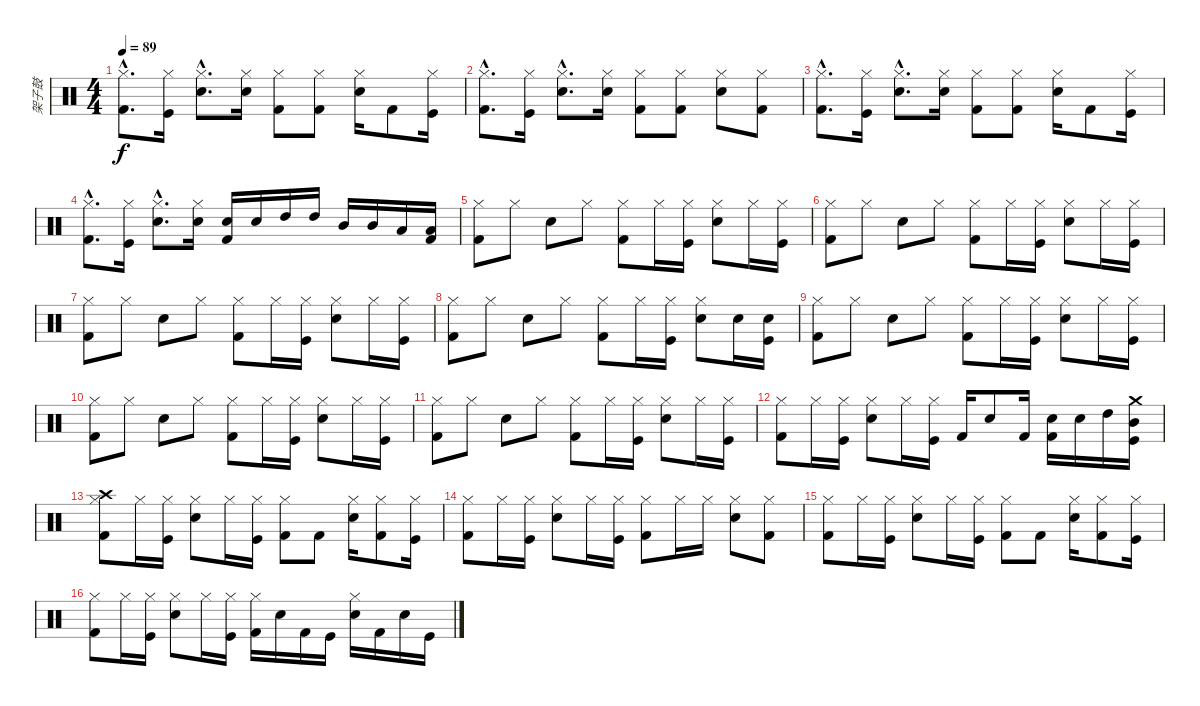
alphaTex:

\track ("架子鼓" "架子鼓") {instrument percussion}
\staff {score}
\articulation defaults
\ts (4 4)
\tempo 89
\clef neutral
\ks c
("Kick (hit) 2"{hac} "Hi-Hat (closed)"{hac}).8{d dy f} ("Kick (hit)" "Hi-Hat (closed)").16 ("Snare (hit) 2"{hac} "Hi-Hat (closed)"{hac}).8{d} ("Snare (hit) 2" "Hi-Hat (closed)").16 ("Kick (hit) 2" "Hi-Hat (closed)").8 ("Kick (hit) 2" "Hi-Hat (closed)").8 ("Snare (hit) 2" "Hi-Hat (closed)").16 "Kick (hit) 2".8 ("Kick (hit)" "Hi-Hat (closed)").16 |
("Kick (hit) 2"{hac} "Hi-Hat (closed)"{hac}).8{d} ("Kick (hit)" "Hi-Hat (closed)").16 ("Snare (hit) 2"{hac} "Hi-Hat (closed)"{hac}).8{d} ("Snare (hit) 2" "Hi-Hat (closed)").16 ("Kick (hit) 2" "Hi-Hat (closed)").8 ("Kick (hit) 2" "Hi-Hat (closed)").8 ("Snare (hit) 2" "Hi-Hat (closed)").8 ("Kick (hit) 2" "Hi-Hat (closed)").8 |
("Kick (hit) 2"{hac} "Hi-Hat (closed)"{hac}).8{d} ("Kick (hit)" "Hi-Hat (closed)").16 ("Snare (hit) 2"{hac} "Hi-Hat (closed)"{hac}).8{d} ("Snare (hit) 2" "Hi-Hat (closed)").16 ("Kick (hit) 2" "Hi-Hat (closed)").8 ("Kick (hit) 2" "Hi-Hat (closed)").8 ("Snare (hit) 2" "Hi-Hat (closed)").16 "Kick (hit) 2".8 ("Kick (hit)" "Hi-Hat (closed)").16 |
("Kick (hit) 2"{hac} "Hi-Hat (closed)"{hac}).8{d} ("Kick (hit)" "Hi-Hat (closed)").16 ("Snare (hit) 2"{hac} "Hi-Hat (closed)"{hac}).8{d} ("Snare (hit) 2" "Hi-Hat (closed)").16 ("Snare (hit) 2" "Kick (hit) 2").16 "Snare (hit) 2".16 "High Tom (hit)".16 "High Tom (hit)".16 "Mid Tom (hit)".16 "Mid Tom (hit)".16 "Low Tom (hit)".16 ("Low Tom (hit)" "Kick (hit) 2").16 |
("Hi-Hat (closed)" "Kick (hit) 2").8 "Hi-Hat (closed)".8 "Snare (hit) 2".8 "Hi-Hat (closed)".8 ("Hi-Hat (closed)" "Kick (hit) 2").8 "Hi-Hat (closed)".16 ("Hi-Hat (closed)" "Kick (hit)").16 ("Snare (hit) 2" "Hi-Hat (closed)").8 "Hi-Hat (closed)".16 ("Hi-Hat (closed)" "Kick (hit)").16 |
("Hi-Hat (closed)" "Kick (hit) 2").8 "Hi-Hat (closed)".8 "Snare (hit) 2".8 "Hi-Hat (closed)".8 ("Hi-Hat (closed)" "Kick (hit) 2").8 "Hi-Hat (closed)".16 ("Hi-Hat (closed)" "Kick (hit)").16 ("Snare (hit) 2" "Hi-Hat (closed)").8 "Hi-Hat (closed)".16 ("Hi-Hat (closed)" "Kick (hit)").16 |
("Hi-Hat (closed)" "Kick (hit) 2").8 "Hi-Hat (closed)".8 "Snare (hit) 2".8 "Hi-Hat (closed)".8 ("Hi-Hat (closed)" "Kick (hit) 2").8 "Hi-Hat (closed)".16 ("Hi-Hat (closed)" "Kick (hit)").16 ("Snare (hit) 2" "Hi-Hat (closed)").8 "Hi-Hat (closed)".16 ("Hi-Hat (closed)" "Kick (hit)").16 |
("Hi-Hat (closed)" "Kick (hit) 2").8 "Hi-Hat (closed)".8 "Snare (hit) 2".8 "Hi-Hat (closed)".8 ("Hi-Hat (closed)" "Kick (hit) 2").8 "Hi-Hat (closed)".16 ("Hi-Hat (closed)" "Kick (hit)").16 ("Snare (hit) 2" "Hi-Hat (closed)").8 "Snare (hit) 2".16 ("Snare (hit) 2" "Kick (hit)").16 |
("Hi-Hat (closed)" "Kick (hit) 2").8 "Hi-Hat (closed)".8 "Snare (hit) 2".8 "Hi-Hat (closed)".8 ("Hi-Hat (closed)" "Kick (hit) 2").8 "Hi-Hat (closed)".16 ("Hi-Hat (closed)" "Kick (hit)").16 ("Snare (hit) 2" "Hi-Hat (closed)").8 "Hi-Hat (closed)".16 ("Hi-Hat (closed)" "Kick (hit)").16 |
("Hi-Hat (closed)" "Kick (hit) 2").8 "Hi-Hat (closed)".8 "Snare (hit) 2".8 "Hi-Hat (closed)".8 ("Hi-Hat (closed)" "Kick (hit) 2").8 "Hi-Hat (closed)".16 ("Hi-Hat (closed)" "Kick (hit)").16 ("Snare (hit) 2" "Hi-Hat (closed)").8 "Hi-Hat (closed)".16 ("Hi-Hat (closed)" "Kick (hit)").16 |
("Hi-Hat (closed)" "Kick (hit) 2").8 "Hi-Hat (closed)".8 "Snare (hit) 2".8 "Hi-Hat (closed)".8 ("Hi-Hat (closed)" "Kick (hit) 2").8 "Hi-Hat (closed)".16 ("Hi-Hat (closed)" "Kick (hit)").16 ("Snare (hit) 2" "Hi-Hat (closed)").8 "Hi-Hat (closed)".16 ("Hi-Hat (closed)" "Kick (hit)").16 |
("Hi-Hat (closed)" "Kick (hit) 2").8 "Hi-Hat (closed)".16 ("Hi-Hat (closed)" "Kick (hit)").16 ("Snare (hit) 2" "Hi-Hat (closed)").8 "Hi-Hat (closed)".16 ("Hi-Hat (closed)" "Kick (hit)").16 "Kick (hit) 2".16 "Snare (hit) 2".8 "Kick (hit) 2".16 ("Snare (hit) 2" "Kick (hit) 2").16 "Snare (hit) 2".16 "High Tom (hit)".16 ("Crash medium (hit)" "Mid Tom (hit)" "Kick (hit)").16 |
("Hi-Hat (closed)" "Kick (hit) 2" "Crash high (hit)").8 "Hi-Hat (closed)".16 ("Hi-Hat (closed)" "Kick (hit)").16 ("Snare (hit) 2" "Hi-Hat (closed)").8 "Hi-Hat (closed)".16 ("Hi-Hat (closed)" "Kick (hit)").16 ("Hi-Hat (closed)" "Kick (hit) 2").8 "Kick (hit) 2".8 ("Snare (hit) 2" "Hi-Hat (closed)").16 ("Hi-Hat (closed)" "Kick (hit) 2").8 ("Hi-Hat (closed)" "Kick (hit)").16 |
("Hi-Hat (closed)" "Kick (hit) 2").8 "Hi-Hat (closed)".16 ("Hi-Hat (closed)" "Kick (hit)").16 ("Snare (hit) 2" "Hi-Hat (closed)").8 "Hi-Hat (closed)".16 ("Hi-Hat (closed)" "Kick (hit)").16 ("Hi-Hat (closed)" "Kick (hit) 2").8 "Hi-Hat (closed)".16 "Hi-Hat (closed)".16 ("Snare (hit) 2" "Hi-Hat (closed)").8 ("Kick (hit) 2" "Hi-Hat (closed)").8 |
("Hi-Hat (closed)" "Kick (hit) 2").8 "Hi-Hat (closed)".16 ("Hi-Hat (closed)" "Kick (hit)").16 ("Snare (hit) 2" "Hi-Hat (closed)").8 "Hi-Hat (closed)".16 ("Hi-Hat (closed)" "Kick (hit)").16 ("Hi-Hat (closed)" "Kick (hit) 2").8 "Kick (hit) 2".8 ("Snare (hit) 2" "Hi-Hat (closed)").16 ("Hi-Hat (closed)" "Kick (hit) 2").8 ("Hi-Hat (closed)" "Kick (hit)").16 |
("Hi-Hat (closed)" "Kick (hit) 2").8 "Hi-Hat (closed)".16 ("Hi-Hat (closed)" "Kick (hit)").16 ("Snare (hit) 2" "Hi-Hat (closed)").8 "Hi-Hat (closed)".16 ("Hi-Hat (closed)" "Kick (hit)").16 ("Hi-Hat (closed)" "Kick (hit) 2").16 "Snare (hit) 2".16 "Kick (hit) 2".16 "Kick (hit)".16 ("Snare (hit) 2" "Hi-Hat (closed)").16 "Kick (hit) 2".16 "Snare (hit) 2".16 "Kick (hit)".16
